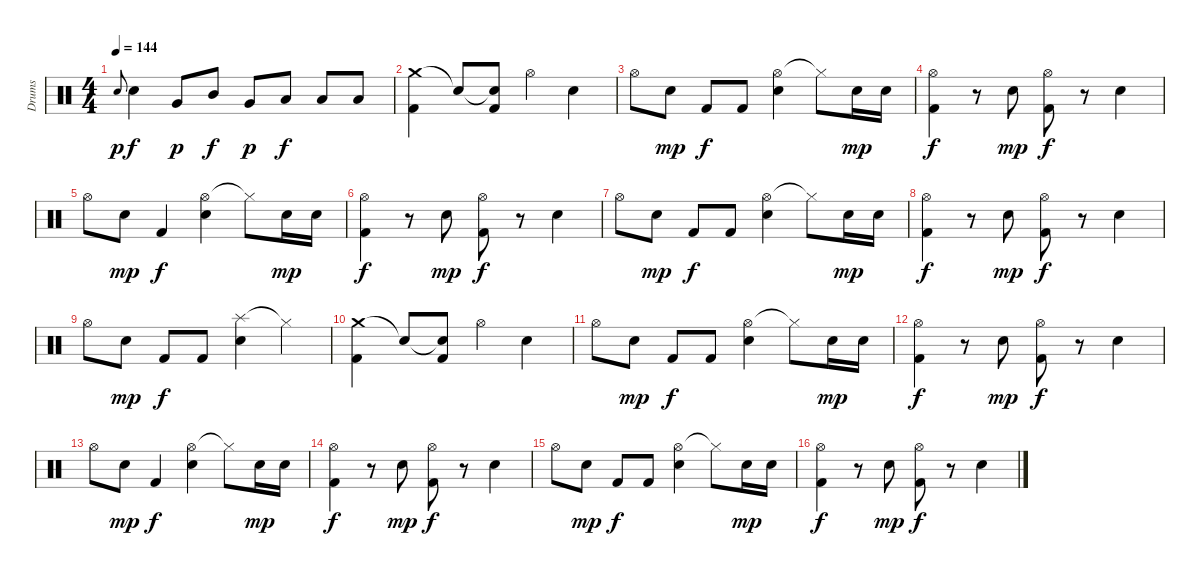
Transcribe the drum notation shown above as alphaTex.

\track ("Drums" "Drums") {instrument percussion}
\staff {score}
\articulation defaults
\ts (4 4)
\tempo 144
\clef neutral
\ks c "Electric Snare (hit)".8{gr onbeat dy p} "Electric Snare (hit)".4{dy f} "Very Low Tom (hit)".8{dy p} "Mid Tom (hit)".8{dy f} "Very Low Tom (hit)".8{dy p} "Low Tom (hit)".8{dy f} "Low Floor Tom (hit)".8 "Low Floor Tom (hit)".8
|
("Crash medium (hit)" "Kick (hit) 2").4 "Snare (hit)"{t}.8 ("Snare (hit)"{t} "Kick (hit) 2").8 "Hi-Hat (open)".4 "Electric Snare (hit)".4 |
"Hi-Hat (open)".8 "Electric Snare (hit)".8{dy mp} "Kick (hit) 2".8{dy f} "Kick (hit) 2".8 ("Hi-Hat (open)" "Electric Snare (hit)").4 "Hi-Hat (closed)"{t}.8 "Electric Snare (hit)".16{dy mp} "Electric Snare (hit)".16 |
("Hi-Hat (open)" "Kick (hit) 2").4{dy f} r.8 "Electric Snare (hit)".8{dy mp} ("Hi-Hat (open)" "Kick (hit) 2").8{dy f} r.8 "Electric Snare (hit)".4 |
"Hi-Hat (open)".8 "Electric Snare (hit)".8{dy mp} "Kick (hit) 2".4{dy f} ("Hi-Hat (open)" "Electric Snare (hit)").4 "Hi-Hat (closed)"{t}.8 "Electric Snare (hit)".16{dy mp} "Electric Snare (hit)".16 |
("Hi-Hat (open)" "Kick (hit) 2").4{dy f} r.8 "Electric Snare (hit)".8{dy mp} ("Hi-Hat (open)" "Kick (hit) 2").8{dy f} r.8 "Electric Snare (hit)".4 |
"Hi-Hat (open)".8 "Electric Snare (hit)".8{dy mp} "Kick (hit) 2".8{dy f} "Kick (hit) 2".8 ("Hi-Hat (open)" "Electric Snare (hit)").4 "Hi-Hat (closed)"{t}.8 "Electric Snare (hit)".16{dy mp} "Electric Snare (hit)".16 |
("Hi-Hat (open)" "Kick (hit) 2").4{dy f} r.8 "Electric Snare (hit)".8{dy mp} ("Hi-Hat (open)" "Kick (hit) 2").8{dy f} r.8 "Electric Snare (hit)".4 |
"Hi-Hat (open)".8 "Electric Snare (hit)".8{dy mp} "Kick (hit) 2".8{dy f} "Kick (hit) 2".8 ("Splash (hit)" "Electric Snare (hit)").4 "Hi-Hat (closed)"{t}.4 |
("Crash medium (hit)" "Kick (hit) 2").4 "Snare (hit)"{t}.8 ("Snare (hit)"{t} "Kick (hit) 2").8 "Hi-Hat (open)".4 "Electric Snare (hit)".4 |
"Hi-Hat (open)".8 "Electric Snare (hit)".8{dy mp} "Kick (hit) 2".8{dy f} "Kick (hit) 2".8 ("Hi-Hat (open)" "Electric Snare (hit)").4 "Hi-Hat (closed)"{t}.8 "Electric Snare (hit)".16{dy mp} "Electric Snare (hit)".16 |
("Hi-Hat (open)" "Kick (hit) 2").4{dy f} r.8 "Electric Snare (hit)".8{dy mp} ("Hi-Hat (open)" "Kick (hit) 2").8{dy f} r.8 "Electric Snare (hit)".4 |
"Hi-Hat (open)".8 "Electric Snare (hit)".8{dy mp} "Kick (hit) 2".4{dy f} ("Hi-Hat (open)" "Electric Snare (hit)").4 "Hi-Hat (closed)"{t}.8 "Electric Snare (hit)".16{dy mp} "Electric Snare (hit)".16 |
("Hi-Hat (open)" "Kick (hit) 2").4{dy f} r.8 "Electric Snare (hit)".8{dy mp} ("Hi-Hat (open)" "Kick (hit) 2").8{dy f} r.8 "Electric Snare (hit)".4 |
"Hi-Hat (open)".8 "Electric Snare (hit)".8{dy mp} "Kick (hit) 2".8{dy f} "Kick (hit) 2".8 ("Hi-Hat (open)" "Electric Snare (hit)").4 "Hi-Hat (closed)"{t}.8 "Electric Snare (hit)".16{dy mp} "Electric Snare (hit)".16 |
("Hi-Hat (open)" "Kick (hit) 2").4{dy f} r.8 "Electric Snare (hit)".8{dy mp} ("Hi-Hat (open)" "Kick (hit) 2").8{dy f} r.8 "Electric Snare (hit)".4
